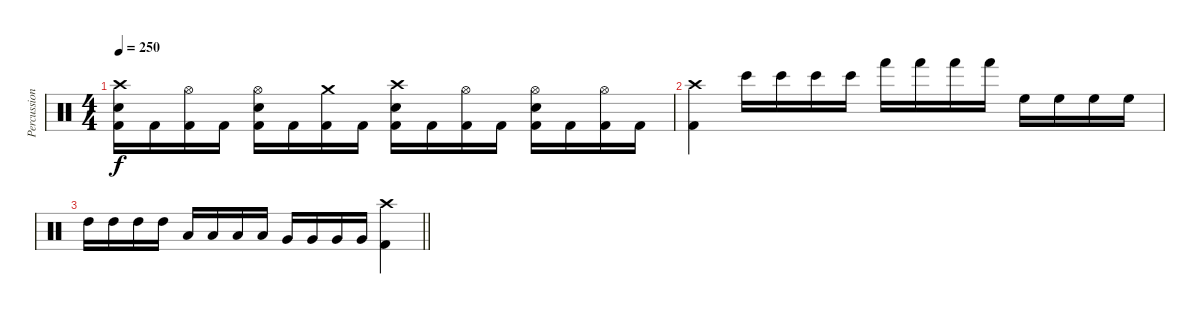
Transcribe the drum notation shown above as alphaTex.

\track ("Percussion" "Percussion") {instrument percussion}
\staff {score}
\articulation defaults
\ts (4 4)
\tempo 250
\clef neutral
\ks c
("Crash high (hit)" "Kick (hit) 2" "Electric Snare (hit)").16{dy f} "Kick (hit) 2".16 ("Hi-Hat (open)" "Kick (hit) 2").16 "Kick (hit) 2".16 ("Hi-Hat (open)" "Kick (hit) 2" "Electric Snare (hit)").16 "Kick (hit) 2".16 ("Crash medium (hit)" "Kick (hit) 2").16 "Kick (hit) 2".16 ("Crash high (hit)" "Kick (hit) 2" "Electric Snare (hit)").16 "Kick (hit) 2".16 ("Hi-Hat (open)" "Kick (hit) 2").16 "Kick (hit) 2".16 ("Hi-Hat (open)" "Kick (hit) 2" "Electric Snare (hit)").16 "Kick (hit) 2".16 ("Hi-Hat (open)" "Kick (hit) 2").16 "Kick (hit) 2".16 |
("Crash high (hit)" "Kick (hit) 2").4 "Bongo High (hit)".16 "Bongo High (hit)".16 "Bongo High (hit)".16 "Bongo High (hit)".16 "Hand (hit)".16 "Hand (hit)".16 "Hand (hit)".16 "Hand (hit)".16 "High Floor Tom (hit)".16 "High Floor Tom (hit)".16 "High Floor Tom (hit)".16 "High Floor Tom (hit)".16 |
\barLineRight lightlight "High Tom (hit)".16 "High Tom (hit)".16 "High Tom (hit)".16 "High Tom (hit)".16 "Low Tom (hit)".16 "Low Tom (hit)".16 "Low Tom (hit)".16 "Low Tom (hit)".16 "Very Low Tom (hit)".16 "Very Low Tom (hit)".16 "Very Low Tom (hit)".16 "Very Low Tom (hit)".16
("Crash high (hit)" "Kick (hit) 2").4
